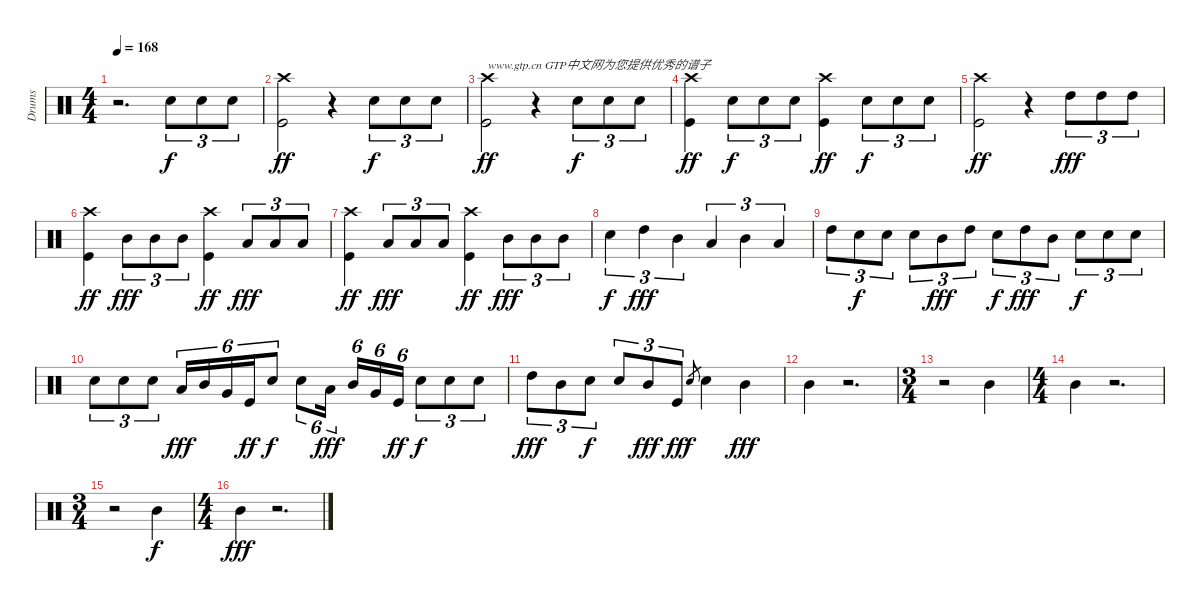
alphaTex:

\track ("Drums" "Drums") {instrument percussion}
\staff {score}
\articulation defaults
\ts (4 4)
\tempo 168
\clef neutral
\ks c
r.2{d dy f} "Electric Snare (hit)".8{tu (3 2)} "Electric Snare (hit)".8{tu (3 2)} "Electric Snare (hit)".8{tu (3 2)} |
("Crash high (hit)" "Kick (hit)").2{dy ff} r.4 "Electric Snare (hit)".8{tu (3 2) dy f} "Electric Snare (hit)".8{tu (3 2)} "Electric Snare (hit)".8{tu (3 2)} |
("Crash high (hit)" "Kick (hit)").2{txt "www.gtp.cn GTP中文网为您提供优秀的谱子" dy ff} r.4 "Electric Snare (hit)".8{tu (3 2) dy f} "Electric Snare (hit)".8{tu (3 2)} "Electric Snare (hit)".8{tu (3 2)} |
("Crash high (hit)" "Kick (hit)").4{dy ff} "Electric Snare (hit)".8{tu (3 2) dy f} "Electric Snare (hit)".8{tu (3 2)} "Electric Snare (hit)".8{tu (3 2)} ("Crash high (hit)" "Kick (hit)").4{dy ff} "Electric Snare (hit)".8{tu (3 2) dy f} "Electric Snare (hit)".8{tu (3 2)} "Electric Snare (hit)".8{tu (3 2)} |
("Crash high (hit)" "Kick (hit)").2{dy ff} r.4 "High Tom (hit)".8{tu (3 2) dy fff} "High Tom (hit)".8{tu (3 2)} "High Tom (hit)".8{tu (3 2)} |
("Crash high (hit)" "Kick (hit)").4{dy ff} "Mid Tom (hit)".8{tu (3 2) dy fff} "Mid Tom (hit)".8{tu (3 2)} "Mid Tom (hit)".8{tu (3 2)} ("Crash high (hit)" "Kick (hit)").4{dy ff} "Low Tom (hit)".8{tu (3 2) dy fff} "Low Tom (hit)".8{tu (3 2)} "Low Tom (hit)".8{tu (3 2)} |
("Crash high (hit)" "Kick (hit)").4{dy ff} "Low Tom (hit)".8{tu (3 2) dy fff} "Low Tom (hit)".8{tu (3 2)} "Low Tom (hit)".8{tu (3 2)} ("Crash high (hit)" "Kick (hit)").4{dy ff} "Mid Tom (hit)".8{tu (3 2) dy fff} "Mid Tom (hit)".8{tu (3 2)} "Mid Tom (hit)".8{tu (3 2)} |
"Electric Snare (hit)".4{tu (3 2) dy f} "High Tom (hit)".4{tu (3 2) dy fff} "Mid Tom (hit)".4{tu (3 2)} "Low Tom (hit)".4{tu (3 2)} "Mid Tom (hit)".4{tu (3 2)} "Low Tom (hit)".4{tu (3 2)} |
"High Tom (hit)".8{tu (3 2)} "Electric Snare (hit)".8{tu (3 2) dy f} "Electric Snare (hit)".8{tu (3 2)} "Electric Snare (hit)".8{tu (3 2)} "Mid Tom (hit)".8{tu (3 2) dy fff} "High Tom (hit)".8{tu (3 2)} "Electric Snare (hit)".8{tu (3 2) dy f} "High Tom (hit)".8{tu (3 2) dy fff} "Mid Tom (hit)".8{tu (3 2)} "Electric Snare (hit)".8{tu (3 2) dy f} "Electric Snare (hit)".8{tu (3 2)} "Electric Snare (hit)".8{tu (3 2)} |
"Electric Snare (hit)".8{tu (3 2)} "Electric Snare (hit)".8{tu (3 2)} "Electric Snare (hit)".8{tu (3 2)} "Low Tom (hit)".16{tu (6 4) dy fff} "Mid Tom (hit)".16{tu (6 4)} "Very Low Tom (hit)".16{tu (6 4)} "Kick (hit)".16{tu (6 4) dy ff} "Electric Snare (hit)".8{tu (6 4) dy f} "Electric Snare (hit)".8{tu (6 4)} "Low Tom (hit)".16{tu (6 4) dy fff} "Mid Tom (hit)".16{tu (6 4)} "Very Low Tom (hit)".16{tu (6 4)} "Kick (hit)".16{tu (6 4) dy ff} "Electric Snare (hit)".8{tu (3 2) dy f} "Electric Snare (hit)".8{tu (3 2)} "Electric Snare (hit)".8{tu (3 2)} |
"High Tom (hit)".8{tu (3 2) dy fff} "Mid Tom (hit)".8{tu (3 2)} "Electric Snare (hit)".8{tu (3 2) dy f} "Electric Snare (hit)".8{tu (3 2)} "Mid Tom (hit)".8{tu (3 2) dy fff} "Kick (hit)".8{tu (3 2) dy ff} "Electric Snare (hit)".8{gr dy f} "Electric Snare (hit)".4 "Mid Tom (hit)".4{dy fff} |
"Mid Tom (hit)".4 r.2{d} |
\ts (3 4)
r.2 "Mid Tom (hit)".4 |
\ts (4 4)
"Mid Tom (hit)".4 r.2{d} |
\ts (3 4)
r.2 "Mid Tom (hit)".4{dy f} |
\ts (4 4)
"Mid Tom (hit)".4{dy fff} r.2{d}
